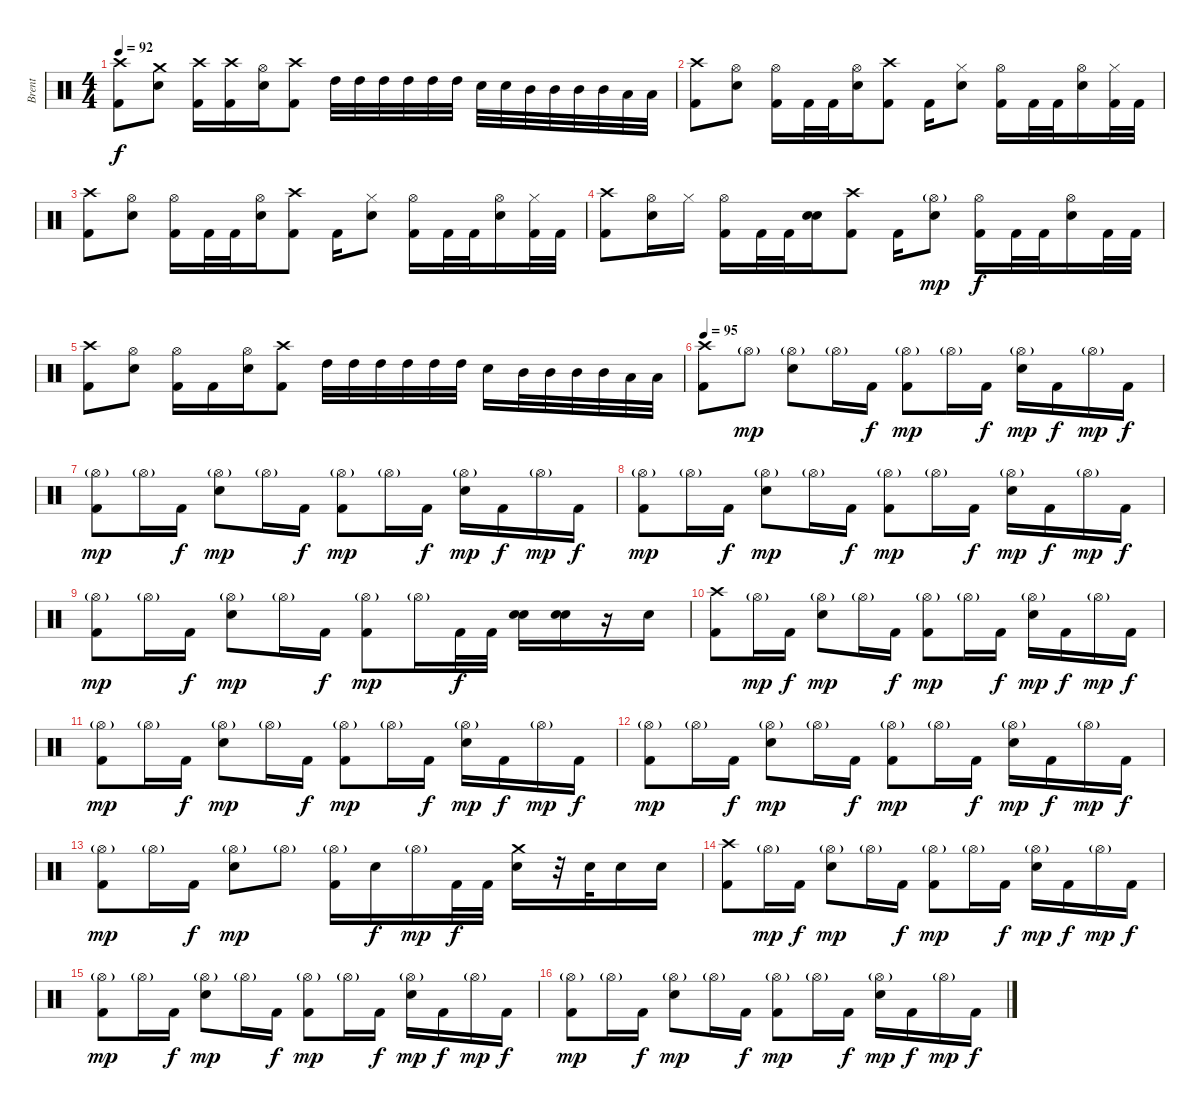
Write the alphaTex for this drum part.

\track ("Brent" "Brent") {instrument percussion}
\staff {score}
\articulation defaults
\ts (4 4)
\tempo 92
\clef neutral
\ks c
("Crash high (hit)" "Kick (hit) 2").8{dy f} ("Crash medium (hit)" "Snare (hit) 2").8 ("Crash high (hit)" "Kick (hit) 2").16 ("Crash high (hit)" "Kick (hit) 2").16 ("Hi-Hat (open)" "Snare (hit) 2").16 ("Crash high (hit)" "Kick (hit) 2").8 "High Tom (hit)".32 "High Tom (hit)".32 "High Tom (hit)".32 "High Tom (hit)".32 "High Tom (hit)".32 "High Tom (hit)".32 "Snare (hit) 2".32 "Snare (hit) 2".32 "Mid Tom (hit)".32 "Mid Tom (hit)".32 "Mid Tom (hit)".32 "Mid Tom (hit)".32 "Low Tom (hit)".32 "Low Tom (hit)".32 |
("Crash high (hit)" "Kick (hit) 2").8 ("Hi-Hat (open)" "Snare (hit) 2").8 ("Hi-Hat (open)" "Kick (hit) 2").16 "Kick (hit) 2".32 "Kick (hit) 2".32 ("Hi-Hat (open)" "Snare (hit) 2").16 ("Crash high (hit)" "Kick (hit) 2").8 "Kick (hit) 2".16 ("Hi-Hat (closed)" "Snare (hit) 2").8 ("Hi-Hat (open)" "Kick (hit) 2").16 "Kick (hit) 2".32 "Kick (hit) 2".32 ("Hi-Hat (open)" "Snare (hit) 2").16 ("Hi-Hat (closed)" "Kick (hit) 2").32 "Kick (hit) 2".32 |
("Crash high (hit)" "Kick (hit) 2").8 ("Hi-Hat (open)" "Snare (hit) 2").8 ("Hi-Hat (open)" "Kick (hit) 2").16 "Kick (hit) 2".32 "Kick (hit) 2".32 ("Hi-Hat (open)" "Snare (hit) 2").16 ("Crash high (hit)" "Kick (hit) 2").8 "Kick (hit) 2".16 ("Hi-Hat (closed)" "Snare (hit) 2").8 ("Hi-Hat (open)" "Kick (hit) 2").16 "Kick (hit) 2".32 "Kick (hit) 2".32 ("Hi-Hat (open)" "Snare (hit) 2").16 ("Hi-Hat (closed)" "Kick (hit) 2").32 "Kick (hit) 2".32 |
("Crash high (hit)" "Kick (hit) 2").8 ("Hi-Hat (open)" "Snare (hit) 2").16 "Hi-Hat (closed)".16 ("Hi-Hat (open)" "Kick (hit) 2").16 "Kick (hit) 2".32 "Kick (hit) 2".32 ("Snare (hit) 2" "Snare (hit) 2").16 ("Crash high (hit)" "Kick (hit) 2").8 "Kick (hit) 2".16 ("Hi-Hat (open)"{g} "Snare (hit) 2").8{dy mp} ("Hi-Hat (open)" "Kick (hit) 2").16{dy f} "Kick (hit) 2".32 "Kick (hit) 2".32 ("Hi-Hat (open)" "Snare (hit) 2").16 "Kick (hit) 2".32 "Kick (hit) 2".32 |
("Crash high (hit)" "Kick (hit) 2").8 ("Hi-Hat (open)" "Snare (hit) 2").8 ("Hi-Hat (open)" "Kick (hit) 2").16 "Kick (hit) 2".16 ("Hi-Hat (open)" "Snare (hit) 2").16 ("Crash high (hit)" "Kick (hit) 2").8 "High Tom (hit)".32 "High Tom (hit)".32 "High Tom (hit)".32 "High Tom (hit)".32 "High Tom (hit)".32 "High Tom (hit)".32 "Snare (hit) 2".16 "Mid Tom (hit)".32 "Mid Tom (hit)".32 "Mid Tom (hit)".32 "Mid Tom (hit)".32 "Low Tom (hit)".32 "Low Tom (hit)".32 |
\tempo 95
("Crash high (hit)" "Kick (hit) 2").8 "Hi-Hat (open)"{g}.8{dy mp} ("Hi-Hat (open)"{g} "Snare (hit) 2").8 "Hi-Hat (open)"{g}.16 "Kick (hit) 2".16{dy f} ("Hi-Hat (open)"{g} "Kick (hit) 2").8{dy mp} "Hi-Hat (open)"{g}.16 "Kick (hit) 2".16{dy f} ("Hi-Hat (open)"{g} "Snare (hit) 2").16{dy mp} "Kick (hit) 2".16{dy f} "Hi-Hat (open)"{g}.16{dy mp} "Kick (hit) 2".16{dy f} |
("Hi-Hat (open)"{g} "Kick (hit) 2").8{dy mp} "Hi-Hat (open)"{g}.16 "Kick (hit) 2".16{dy f} ("Hi-Hat (open)"{g} "Snare (hit) 2").8{dy mp} "Hi-Hat (open)"{g}.16 "Kick (hit) 2".16{dy f} ("Hi-Hat (open)"{g} "Kick (hit) 2").8{dy mp} "Hi-Hat (open)"{g}.16 "Kick (hit) 2".16{dy f} ("Hi-Hat (open)"{g} "Snare (hit) 2").16{dy mp} "Kick (hit) 2".16{dy f} "Hi-Hat (open)"{g}.16{dy mp} "Kick (hit) 2".16{dy f} |
("Hi-Hat (open)"{g} "Kick (hit) 2").8{dy mp} "Hi-Hat (open)"{g}.16 "Kick (hit) 2".16{dy f} ("Hi-Hat (open)"{g} "Snare (hit) 2").8{dy mp} "Hi-Hat (open)"{g}.16 "Kick (hit) 2".16{dy f} ("Hi-Hat (open)"{g} "Kick (hit) 2").8{dy mp} "Hi-Hat (open)"{g}.16 "Kick (hit) 2".16{dy f} ("Hi-Hat (open)"{g} "Snare (hit) 2").16{dy mp} "Kick (hit) 2".16{dy f} "Hi-Hat (open)"{g}.16{dy mp} "Kick (hit) 2".16{dy f} |
("Hi-Hat (open)"{g} "Kick (hit) 2").8{dy mp} "Hi-Hat (open)"{g}.16 "Kick (hit) 2".16{dy f} ("Hi-Hat (open)"{g} "Snare (hit) 2").8{dy mp} "Hi-Hat (open)"{g}.16 "Kick (hit) 2".16{dy f} ("Hi-Hat (open)"{g} "Kick (hit) 2").8{dy mp} "Hi-Hat (open)"{g}.16 "Kick (hit) 2".32{dy f} "Kick (hit) 2".32 ("Snare (hit) 2" "Snare (hit) 2").16 ("Snare (hit) 2" "Snare (hit) 2").16 r.16 "Snare (hit) 2".16 |
("Crash high (hit)" "Kick (hit) 2").8 "Hi-Hat (open)"{g}.16{dy mp} "Kick (hit) 2".16{dy f} ("Hi-Hat (open)"{g} "Snare (hit) 2").8{dy mp} "Hi-Hat (open)"{g}.16 "Kick (hit) 2".16{dy f} ("Hi-Hat (open)"{g} "Kick (hit) 2").8{dy mp} "Hi-Hat (open)"{g}.16 "Kick (hit) 2".16{dy f} ("Hi-Hat (open)"{g} "Snare (hit) 2").16{dy mp} "Kick (hit) 2".16{dy f} "Hi-Hat (open)"{g}.16{dy mp} "Kick (hit) 2".16{dy f} |
("Hi-Hat (open)"{g} "Kick (hit) 2").8{dy mp} "Hi-Hat (open)"{g}.16 "Kick (hit) 2".16{dy f} ("Hi-Hat (open)"{g} "Snare (hit) 2").8{dy mp} "Hi-Hat (open)"{g}.16 "Kick (hit) 2".16{dy f} ("Hi-Hat (open)"{g} "Kick (hit) 2").8{dy mp} "Hi-Hat (open)"{g}.16 "Kick (hit) 2".16{dy f} ("Hi-Hat (open)"{g} "Snare (hit) 2").16{dy mp} "Kick (hit) 2".16{dy f} "Hi-Hat (open)"{g}.16{dy mp} "Kick (hit) 2".16{dy f} |
("Hi-Hat (open)"{g} "Kick (hit) 2").8{dy mp} "Hi-Hat (open)"{g}.16 "Kick (hit) 2".16{dy f} ("Hi-Hat (open)"{g} "Snare (hit) 2").8{dy mp} "Hi-Hat (open)"{g}.16 "Kick (hit) 2".16{dy f} ("Hi-Hat (open)"{g} "Kick (hit) 2").8{dy mp} "Hi-Hat (open)"{g}.16 "Kick (hit) 2".16{dy f} ("Hi-Hat (open)"{g} "Snare (hit) 2").16{dy mp} "Kick (hit) 2".16{dy f} "Hi-Hat (open)"{g}.16{dy mp} "Kick (hit) 2".16{dy f} |
("Hi-Hat (open)"{g} "Kick (hit) 2").8{dy mp} "Hi-Hat (open)"{g}.16 "Kick (hit) 2".16{dy f} ("Hi-Hat (open)"{g} "Snare (hit) 2").8{dy mp} "Hi-Hat (open)"{g}.8 ("Hi-Hat (open)"{g} "Kick (hit) 2").16 "Snare (hit) 2".16{dy f} "Hi-Hat (open)"{g}.16{dy mp} "Kick (hit) 2".32{dy f} "Kick (hit) 2".32 ("Crash medium (hit)" "Snare (hit) 2").16 r.32 "Snare (hit) 2".32 "Snare (hit) 2".16 "Snare (hit) 2".16 |
("Crash high (hit)" "Kick (hit) 2").8 "Hi-Hat (open)"{g}.16{dy mp} "Kick (hit) 2".16{dy f} ("Hi-Hat (open)"{g} "Snare (hit) 2").8{dy mp} "Hi-Hat (open)"{g}.16 "Kick (hit) 2".16{dy f} ("Hi-Hat (open)"{g} "Kick (hit) 2").8{dy mp} "Hi-Hat (open)"{g}.16 "Kick (hit) 2".16{dy f} ("Hi-Hat (open)"{g} "Snare (hit) 2").16{dy mp} "Kick (hit) 2".16{dy f} "Hi-Hat (open)"{g}.16{dy mp} "Kick (hit) 2".16{dy f} |
("Hi-Hat (open)"{g} "Kick (hit) 2").8{dy mp} "Hi-Hat (open)"{g}.16 "Kick (hit) 2".16{dy f} ("Hi-Hat (open)"{g} "Snare (hit) 2").8{dy mp} "Hi-Hat (open)"{g}.16 "Kick (hit) 2".16{dy f} ("Hi-Hat (open)"{g} "Kick (hit) 2").8{dy mp} "Hi-Hat (open)"{g}.16 "Kick (hit) 2".16{dy f} ("Hi-Hat (open)"{g} "Snare (hit) 2").16{dy mp} "Kick (hit) 2".16{dy f} "Hi-Hat (open)"{g}.16{dy mp} "Kick (hit) 2".16{dy f} |
("Hi-Hat (open)"{g} "Kick (hit) 2").8{dy mp} "Hi-Hat (open)"{g}.16 "Kick (hit) 2".16{dy f} ("Hi-Hat (open)"{g} "Snare (hit) 2").8{dy mp} "Hi-Hat (open)"{g}.16 "Kick (hit) 2".16{dy f} ("Hi-Hat (open)"{g} "Kick (hit) 2").8{dy mp} "Hi-Hat (open)"{g}.16 "Kick (hit) 2".16{dy f} ("Hi-Hat (open)"{g} "Snare (hit) 2").16{dy mp} "Kick (hit) 2".16{dy f} "Hi-Hat (open)"{g}.16{dy mp} "Kick (hit) 2".16{dy f}
